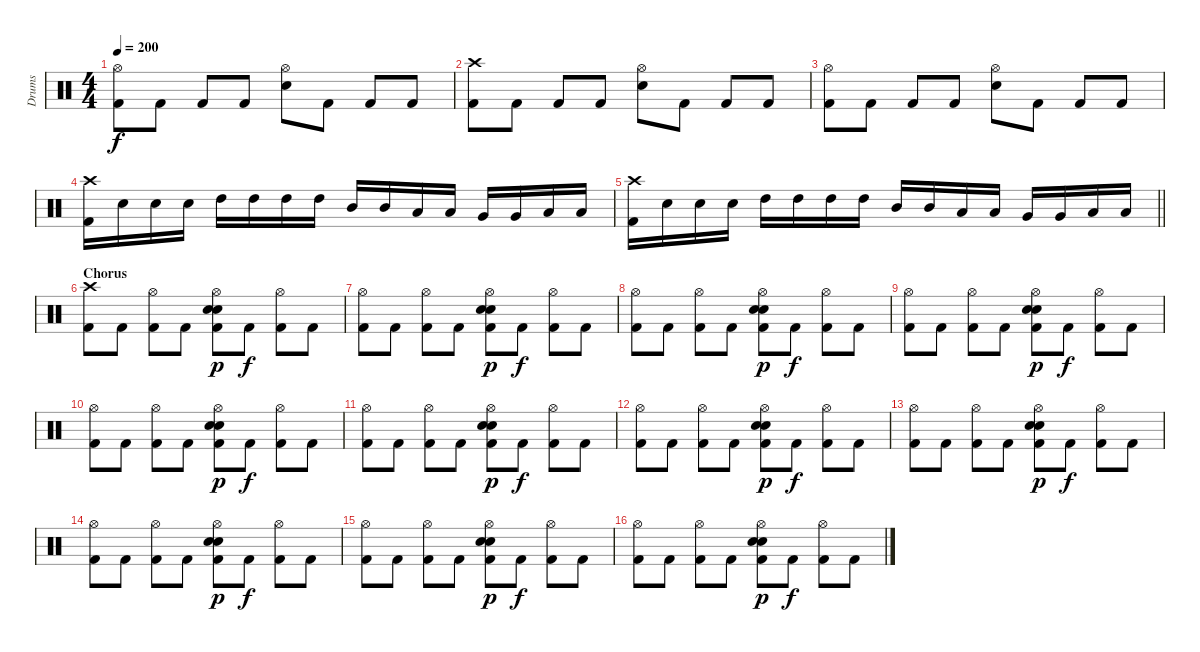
\track ("Drums" "Drums") {instrument percussion}
\staff {score}
\articulation defaults
\ts (4 4)
\tempo 200
\clef neutral
\ks c
("Hi-Hat (open)" "Kick (hit) 2").8{dy f} "Kick (hit) 2".8 "Kick (hit) 2".8 "Kick (hit) 2".8 ("Hi-Hat (open)" "Electric Snare (hit)").8 "Kick (hit) 2".8 "Kick (hit) 2".8 "Kick (hit) 2".8 |
("Crash high (hit)" "Kick (hit) 2").8 "Kick (hit) 2".8 "Kick (hit) 2".8 "Kick (hit) 2".8 ("Hi-Hat (open)" "Electric Snare (hit)").8 "Kick (hit) 2".8 "Kick (hit) 2".8 "Kick (hit) 2".8 |
("Hi-Hat (open)" "Kick (hit) 2").8 "Kick (hit) 2".8 "Kick (hit) 2".8 "Kick (hit) 2".8 ("Hi-Hat (open)" "Electric Snare (hit)").8 "Kick (hit) 2".8 "Kick (hit) 2".8 "Kick (hit) 2".8 |
("Crash high (hit)" "Kick (hit) 2").16 "Electric Snare (hit)".16 "Electric Snare (hit)".16 "Electric Snare (hit)".16 "High Tom (hit)".16 "High Tom (hit)".16 "High Tom (hit)".16 "High Tom (hit)".16 "Mid Tom (hit)".16 "Mid Tom (hit)".16 "Low Tom (hit)".16 "Low Tom (hit)".16 "Very Low Tom (hit)".16 "Very Low Tom (hit)".16 "Low Floor Tom (hit)".16 "Low Floor Tom (hit)".16 |
\barLineRight lightlight
("Crash high (hit)" "Kick (hit) 2").16 "Electric Snare (hit)".16 "Electric Snare (hit)".16 "Electric Snare (hit)".16 "High Tom (hit)".16 "High Tom (hit)".16 "High Tom (hit)".16 "High Tom (hit)".16 "Mid Tom (hit)".16 "Mid Tom (hit)".16 "Low Tom (hit)".16 "Low Tom (hit)".16 "Very Low Tom (hit)".16 "Very Low Tom (hit)".16 "Low Floor Tom (hit)".16 "Low Floor Tom (hit)".16 |
\section ("" "Chorus")
("Crash high (hit)" "Kick (hit) 2").8 "Kick (hit) 2".8 ("Hi-Hat (open)" "Kick (hit) 2").8 "Kick (hit) 2".8 ("Hi-Hat (open)" "Snare (hit) 2" "Electric Snare (hit)" "Kick (hit) 2").8{dy p} "Kick (hit) 2".8{dy f} ("Hi-Hat (open)" "Kick (hit) 2").8 "Kick (hit) 2".8 |
("Hi-Hat (open)" "Kick (hit) 2").8 "Kick (hit) 2".8 ("Hi-Hat (open)" "Kick (hit) 2").8 "Kick (hit) 2".8 ("Hi-Hat (open)" "Snare (hit) 2" "Electric Snare (hit)" "Kick (hit) 2").8{dy p} "Kick (hit) 2".8{dy f} ("Hi-Hat (open)" "Kick (hit) 2").8 "Kick (hit) 2".8 |
("Hi-Hat (open)" "Kick (hit) 2").8 "Kick (hit) 2".8 ("Hi-Hat (open)" "Kick (hit) 2").8 "Kick (hit) 2".8 ("Hi-Hat (open)" "Snare (hit) 2" "Electric Snare (hit)" "Kick (hit) 2").8{dy p} "Kick (hit) 2".8{dy f} ("Hi-Hat (open)" "Kick (hit) 2").8 "Kick (hit) 2".8 |
("Hi-Hat (open)" "Kick (hit) 2").8 "Kick (hit) 2".8 ("Hi-Hat (open)" "Kick (hit) 2").8 "Kick (hit) 2".8 ("Hi-Hat (open)" "Snare (hit) 2" "Electric Snare (hit)" "Kick (hit) 2").8{dy p} "Kick (hit) 2".8{dy f} ("Hi-Hat (open)" "Kick (hit) 2").8 "Kick (hit) 2".8 |
("Hi-Hat (open)" "Kick (hit) 2").8 "Kick (hit) 2".8 ("Hi-Hat (open)" "Kick (hit) 2").8 "Kick (hit) 2".8 ("Hi-Hat (open)" "Snare (hit) 2" "Electric Snare (hit)" "Kick (hit) 2").8{dy p} "Kick (hit) 2".8{dy f} ("Hi-Hat (open)" "Kick (hit) 2").8 "Kick (hit) 2".8 |
("Hi-Hat (open)" "Kick (hit) 2").8 "Kick (hit) 2".8 ("Hi-Hat (open)" "Kick (hit) 2").8 "Kick (hit) 2".8 ("Hi-Hat (open)" "Snare (hit) 2" "Electric Snare (hit)" "Kick (hit) 2").8{dy p} "Kick (hit) 2".8{dy f} ("Hi-Hat (open)" "Kick (hit) 2").8 "Kick (hit) 2".8 |
("Hi-Hat (open)" "Kick (hit) 2").8 "Kick (hit) 2".8 ("Hi-Hat (open)" "Kick (hit) 2").8 "Kick (hit) 2".8 ("Hi-Hat (open)" "Snare (hit) 2" "Electric Snare (hit)" "Kick (hit) 2").8{dy p} "Kick (hit) 2".8{dy f} ("Hi-Hat (open)" "Kick (hit) 2").8 "Kick (hit) 2".8 |
("Hi-Hat (open)" "Kick (hit) 2").8 "Kick (hit) 2".8 ("Hi-Hat (open)" "Kick (hit) 2").8 "Kick (hit) 2".8 ("Hi-Hat (open)" "Snare (hit) 2" "Electric Snare (hit)" "Kick (hit) 2").8{dy p} "Kick (hit) 2".8{dy f} ("Hi-Hat (open)" "Kick (hit) 2").8 "Kick (hit) 2".8 |
("Hi-Hat (open)" "Kick (hit) 2").8 "Kick (hit) 2".8 ("Hi-Hat (open)" "Kick (hit) 2").8 "Kick (hit) 2".8 ("Hi-Hat (open)" "Snare (hit) 2" "Electric Snare (hit)" "Kick (hit) 2").8{dy p} "Kick (hit) 2".8{dy f} ("Hi-Hat (open)" "Kick (hit) 2").8 "Kick (hit) 2".8 |
("Hi-Hat (open)" "Kick (hit) 2").8 "Kick (hit) 2".8 ("Hi-Hat (open)" "Kick (hit) 2").8 "Kick (hit) 2".8 ("Hi-Hat (open)" "Snare (hit) 2" "Electric Snare (hit)" "Kick (hit) 2").8{dy p} "Kick (hit) 2".8{dy f} ("Hi-Hat (open)" "Kick (hit) 2").8 "Kick (hit) 2".8 |
("Hi-Hat (open)" "Kick (hit) 2").8 "Kick (hit) 2".8 ("Hi-Hat (open)" "Kick (hit) 2").8 "Kick (hit) 2".8 ("Hi-Hat (open)" "Snare (hit) 2" "Electric Snare (hit)" "Kick (hit) 2").8{dy p} "Kick (hit) 2".8{dy f} ("Hi-Hat (open)" "Kick (hit) 2").8 "Kick (hit) 2".8
